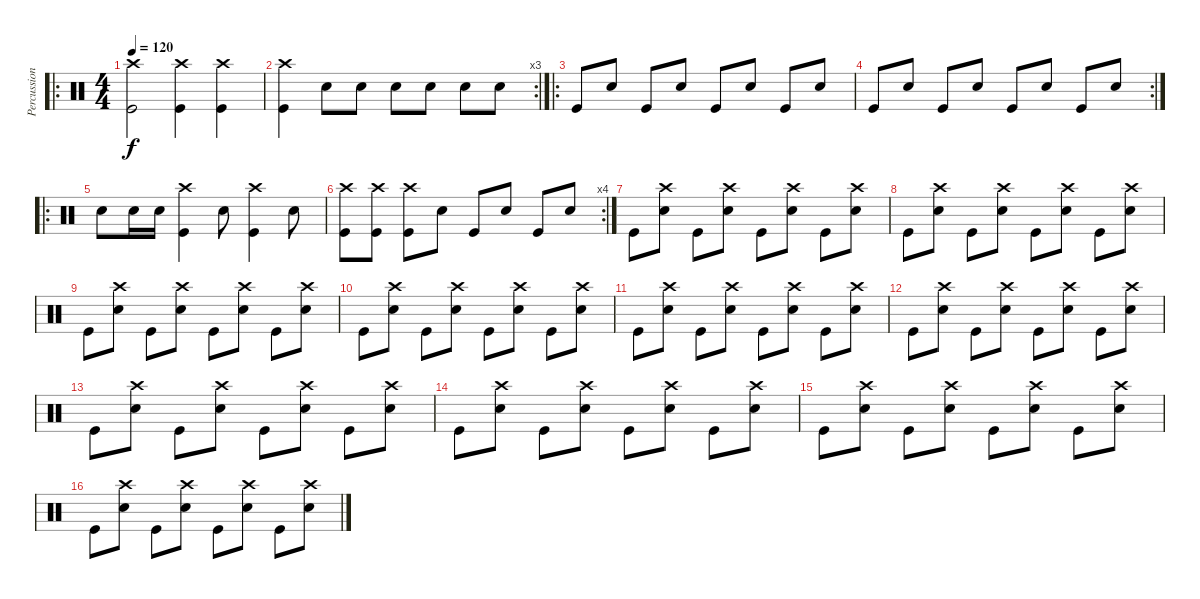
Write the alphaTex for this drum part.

\track ("Percussion" "Percussion") {instrument percussion}
\staff {score}
\articulation defaults
\ro
\ts (4 4)
\tempo 120
\clef neutral
\ks c
("Crash high (hit)" "Kick (hit)").2{dy f} ("Crash high (hit)" "Kick (hit)").4 ("Crash high (hit)" "Kick (hit)").4 |
\rc 3
("Crash high (hit)" "Kick (hit)").4 "Snare (hit) 2".8 "Snare (hit) 2".8 "Snare (hit) 2".8 "Snare (hit) 2".8 "Snare (hit) 2".8 "Snare (hit) 2".8 |
\ro "Kick (hit)".8 "Snare (hit) 2".8 "Kick (hit)".8 "Snare (hit) 2".8 "Kick (hit)".8 "Snare (hit) 2".8 "Kick (hit)".8 "Snare (hit) 2".8
|
\rc 2 "Kick (hit)".8 "Snare (hit) 2".8 "Kick (hit)".8 "Snare (hit) 2".8 "Kick (hit)".8 "Snare (hit) 2".8 "Kick (hit)".8 "Snare (hit) 2".8
|
\ro "Snare (hit) 2".8 "Snare (hit) 2".16 "Snare (hit) 2".16
("Crash high (hit)" "Kick (hit)").4 "Snare (hit) 2".8 ("Crash high (hit)" "Kick (hit)").4 "Snare (hit) 2".8 |
\rc 4
("Crash high (hit)" "Kick (hit)").8 ("Crash high (hit)" "Kick (hit)").8 ("Crash high (hit)" "Kick (hit)").8 "Snare (hit) 2".8 "Kick (hit)".8 "Snare (hit) 2".8 "Kick (hit)".8 "Snare (hit) 2".8 |
"Kick (hit)".8 ("Crash high (hit)" "Snare (hit) 2").8 "Kick (hit)".8 ("Crash high (hit)" "Snare (hit) 2").8 "Kick (hit)".8 ("Crash high (hit)" "Snare (hit) 2").8 "Kick (hit)".8 ("Crash high (hit)" "Snare (hit) 2").8 |
"Kick (hit)".8 ("Crash high (hit)" "Snare (hit) 2").8 "Kick (hit)".8 ("Crash high (hit)" "Snare (hit) 2").8 "Kick (hit)".8 ("Crash high (hit)" "Snare (hit) 2").8 "Kick (hit)".8 ("Crash high (hit)" "Snare (hit) 2").8 |
"Kick (hit)".8 ("Crash high (hit)" "Snare (hit) 2").8 "Kick (hit)".8 ("Crash high (hit)" "Snare (hit) 2").8 "Kick (hit)".8 ("Crash high (hit)" "Snare (hit) 2").8 "Kick (hit)".8 ("Crash high (hit)" "Snare (hit) 2").8 |
"Kick (hit)".8 ("Crash high (hit)" "Snare (hit) 2").8 "Kick (hit)".8 ("Crash high (hit)" "Snare (hit) 2").8 "Kick (hit)".8 ("Crash high (hit)" "Snare (hit) 2").8 "Kick (hit)".8 ("Crash high (hit)" "Snare (hit) 2").8 |
"Kick (hit)".8 ("Crash high (hit)" "Snare (hit) 2").8 "Kick (hit)".8 ("Crash high (hit)" "Snare (hit) 2").8 "Kick (hit)".8 ("Crash high (hit)" "Snare (hit) 2").8 "Kick (hit)".8 ("Crash high (hit)" "Snare (hit) 2").8 |
"Kick (hit)".8 ("Crash high (hit)" "Snare (hit) 2").8 "Kick (hit)".8 ("Crash high (hit)" "Snare (hit) 2").8 "Kick (hit)".8 ("Crash high (hit)" "Snare (hit) 2").8 "Kick (hit)".8 ("Crash high (hit)" "Snare (hit) 2").8 |
"Kick (hit)".8 ("Crash high (hit)" "Snare (hit) 2").8 "Kick (hit)".8 ("Crash high (hit)" "Snare (hit) 2").8 "Kick (hit)".8 ("Crash high (hit)" "Snare (hit) 2").8 "Kick (hit)".8 ("Crash high (hit)" "Snare (hit) 2").8 |
"Kick (hit)".8 ("Crash high (hit)" "Snare (hit) 2").8 "Kick (hit)".8 ("Crash high (hit)" "Snare (hit) 2").8 "Kick (hit)".8 ("Crash high (hit)" "Snare (hit) 2").8 "Kick (hit)".8 ("Crash high (hit)" "Snare (hit) 2").8 |
"Kick (hit)".8 ("Crash high (hit)" "Snare (hit) 2").8 "Kick (hit)".8 ("Crash high (hit)" "Snare (hit) 2").8 "Kick (hit)".8 ("Crash high (hit)" "Snare (hit) 2").8 "Kick (hit)".8 ("Crash high (hit)" "Snare (hit) 2").8 |
"Kick (hit)".8 ("Crash high (hit)" "Snare (hit) 2").8 "Kick (hit)".8 ("Crash high (hit)" "Snare (hit) 2").8 "Kick (hit)".8 ("Crash high (hit)" "Snare (hit) 2").8 "Kick (hit)".8 ("Crash high (hit)" "Snare (hit) 2").8
